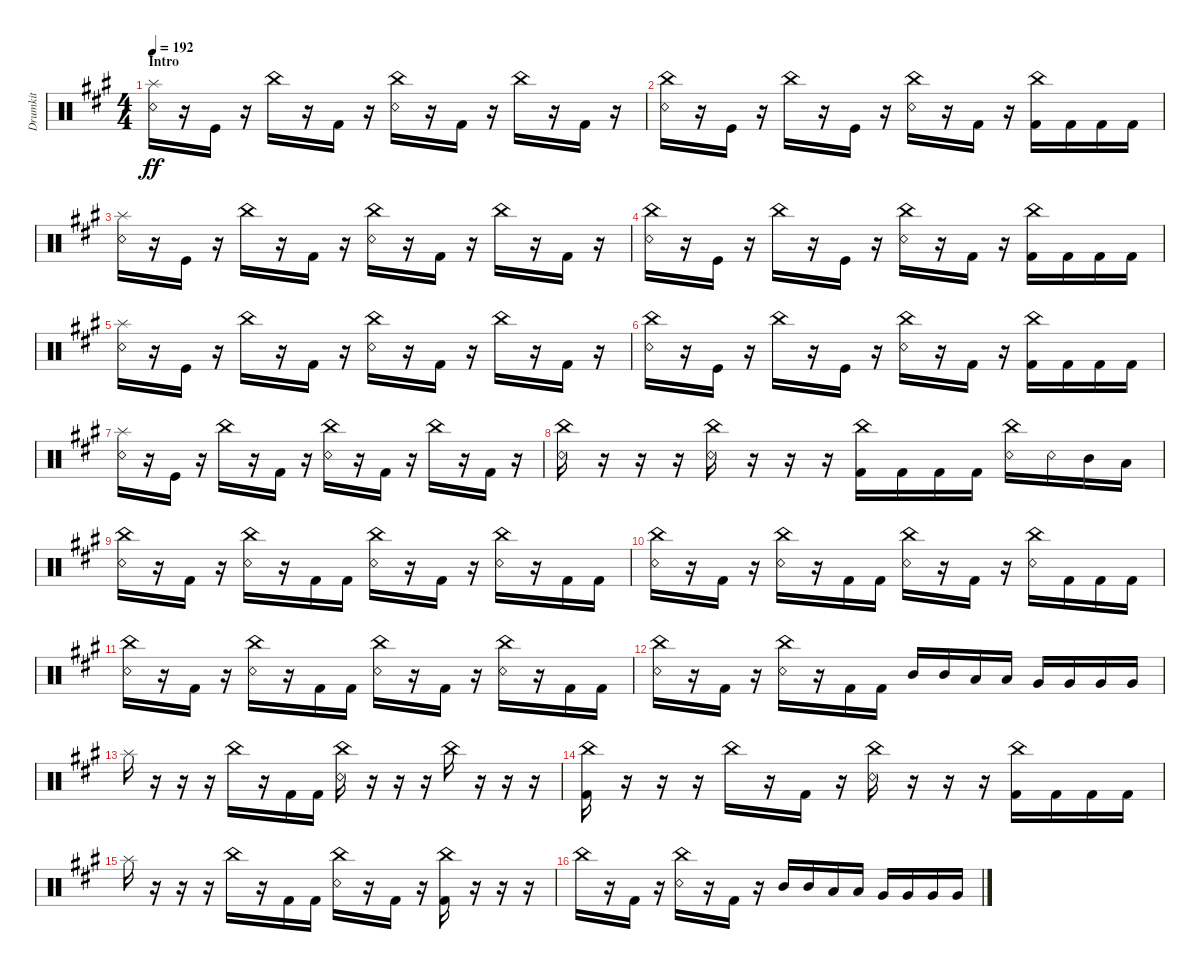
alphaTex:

\track ("Drumkit" "Drumkit") {instrument percussion}
\staff {score}
\articulation defaults
\ts (4 4)
\section ("" "Intro")
\tempo 192
\clef neutral
\ks a
("Snare (rim shot)" "Splash (hit)").16{dy ff} r.16 "Kick (hit)".16 r.16 "China (hit)".16 r.16 "Kick (hit) 2".16 r.16 ("China (hit)" "Snare (rim shot)").16 r.16 "Kick (hit) 2".16 r.16 "China (hit)".16 r.16 "Kick (hit) 2".16 r.16 |
("China (hit)" "Snare (rim shot)").16 r.16 "Kick (hit)".16 r.16 "China (hit)".16 r.16 "Kick (hit)".16 r.16 ("China (hit)" "Snare (rim shot)").16 r.16 "Kick (hit) 2".16 r.16 ("China (hit)" "Kick (hit) 2").16 "Kick (hit) 2".16 "Kick (hit) 2".16 "Kick (hit) 2".16 |
("Snare (rim shot)" "Splash (hit)").16 r.16 "Kick (hit)".16 r.16 "China (hit)".16 r.16 "Kick (hit) 2".16 r.16 ("China (hit)" "Snare (rim shot)").16 r.16 "Kick (hit) 2".16 r.16 "China (hit)".16 r.16 "Kick (hit) 2".16 r.16 |
("China (hit)" "Snare (rim shot)").16 r.16 "Kick (hit)".16 r.16 "China (hit)".16 r.16 "Kick (hit)".16 r.16 ("China (hit)" "Snare (rim shot)").16 r.16 "Kick (hit) 2".16 r.16 ("China (hit)" "Kick (hit) 2").16 "Kick (hit) 2".16 "Kick (hit) 2".16 "Kick (hit) 2".16 |
("Snare (rim shot)" "Splash (hit)").16 r.16 "Kick (hit)".16 r.16 "China (hit)".16 r.16 "Kick (hit) 2".16 r.16 ("China (hit)" "Snare (rim shot)").16 r.16 "Kick (hit) 2".16 r.16 "China (hit)".16 r.16 "Kick (hit) 2".16 r.16 |
("China (hit)" "Snare (rim shot)").16 r.16 "Kick (hit)".16 r.16 "China (hit)".16 r.16 "Kick (hit)".16 r.16 ("China (hit)" "Snare (rim shot)").16 r.16 "Kick (hit) 2".16 r.16 ("China (hit)" "Kick (hit) 2").16 "Kick (hit) 2".16 "Kick (hit) 2".16 "Kick (hit) 2".16 |
("Snare (rim shot)" "Splash (hit)").16 r.16 "Kick (hit)".16 r.16 "China (hit)".16 r.16 "Kick (hit) 2".16 r.16 ("China (hit)" "Snare (rim shot)").16 r.16 "Kick (hit) 2".16 r.16 "China (hit)".16 r.16 "Kick (hit) 2".16 r.16 |
("China (hit)" "Snare (rim shot)").16 r.16 r.16 r.16 ("China (hit)" "Snare (rim shot)").16 r.16 r.16 r.16 ("China (hit)" "Kick (hit) 2").16 "Kick (hit) 2".16 "Kick (hit) 2".16 "Kick (hit) 2".16 ("China (hit)" "Snare (rim shot)").16 "Snare (rim shot)".16 "Mid Tom (hit)".16 "Low Tom (hit)".16 |
("China (hit)" "Snare (rim shot)").16 r.16 "Kick (hit) 2".16 r.16 ("China (hit)" "Snare (rim shot)").16 r.16 "Kick (hit) 2".16 "Kick (hit) 2".16 ("China (hit)" "Snare (rim shot)").16 r.16 "Kick (hit) 2".16 r.16 ("China (hit)" "Snare (rim shot)").16 r.16 "Kick (hit) 2".16 "Kick (hit) 2".16 |
("China (hit)" "Snare (rim shot)").16 r.16 "Kick (hit) 2".16 r.16 ("China (hit)" "Snare (rim shot)").16 r.16 "Kick (hit) 2".16 "Kick (hit) 2".16 ("China (hit)" "Snare (rim shot)").16 r.16 "Kick (hit) 2".16 r.16 ("China (hit)" "Snare (rim shot)").16 "Kick (hit) 2".16 "Kick (hit) 2".16 "Kick (hit) 2".16 |
("China (hit)" "Snare (rim shot)").16 r.16 "Kick (hit) 2".16 r.16 ("China (hit)" "Snare (rim shot)").16 r.16 "Kick (hit) 2".16 "Kick (hit) 2".16 ("China (hit)" "Snare (rim shot)").16 r.16 "Kick (hit) 2".16 r.16 ("China (hit)" "Snare (rim shot)").16 r.16 "Kick (hit) 2".16 "Kick (hit) 2".16 |
("China (hit)" "Snare (rim shot)").16 r.16 "Kick (hit) 2".16 r.16 ("China (hit)" "Snare (rim shot)").16 r.16 "Kick (hit) 2".16 "Kick (hit) 2".16 "Mid Tom (hit)".16 "Mid Tom (hit)".16 "Low Tom (hit)".16 "Low Tom (hit)".16 "Very Low Tom (hit)".16 "Very Low Tom (hit)".16 "Very Low Tom (hit)".16 "Very Low Tom (hit)".16 |
"Splash (hit)".16 r.16 r.16 r.16 "China (hit)".16 r.16 "Kick (hit) 2".16 "Kick (hit) 2".16 ("China (hit)" "Snare (rim shot)").16 r.16 r.16 r.16 "China (hit)".16 r.16 r.16 r.16 |
("China (hit)" "Kick (hit) 2").16 r.16 r.16 r.16 "China (hit)".16 r.16 "Kick (hit) 2".16 r.16 ("China (hit)" "Snare (rim shot)").16 r.16 r.16 r.16 ("China (hit)" "Kick (hit) 2").16 "Kick (hit) 2".16 "Kick (hit) 2".16 "Kick (hit) 2".16 |
"Splash (hit)".16 r.16 r.16 r.16 "China (hit)".16 r.16 "Kick (hit) 2".16 "Kick (hit) 2".16 ("China (hit)" "Snare (rim shot)").16 r.16 "Kick (hit) 2".16 r.16 ("China (hit)" "Kick (hit) 2").16 r.16 r.16 r.16 |
"China (hit)".16 r.16 "Kick (hit) 2".16 r.16 ("China (hit)" "Snare (rim shot)").16 r.16 "Kick (hit) 2".16 r.16 "Mid Tom (hit)".16 "Mid Tom (hit)".16 "Low Tom (hit)".16 "Low Tom (hit)".16 "Very Low Tom (hit)".16 "Very Low Tom (hit)".16 "Very Low Tom (hit)".16 "Very Low Tom (hit)".16
